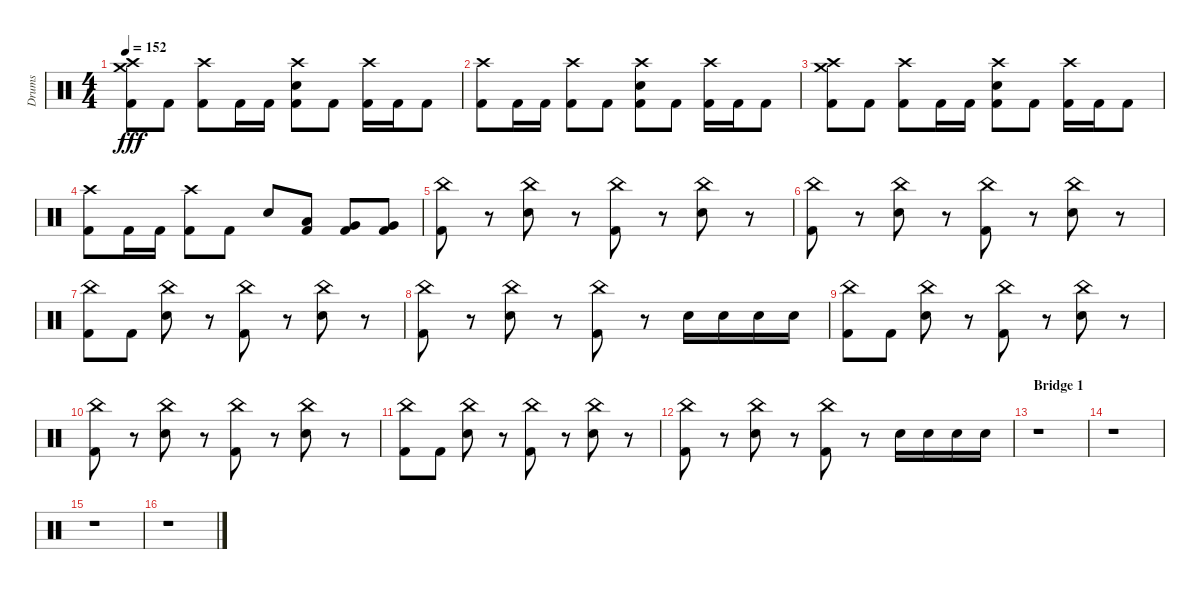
\track ("Drums" "Drums") {instrument percussion}
\staff {score}
\articulation defaults
\ts (4 4)
\tempo 152
\clef neutral
\ks c
("Crash high (hit)" "Crash medium (hit)" "Kick (hit) 2").8{dy fff} "Kick (hit) 2".8 ("Crash high (hit)" "Kick (hit) 2").8 "Kick (hit) 2".16 "Kick (hit) 2".16 ("Crash high (hit)" "Snare (hit) 2" "Kick (hit) 2").8 "Kick (hit) 2".8 ("Crash high (hit)" "Kick (hit) 2").16 "Kick (hit) 2".16 "Kick (hit) 2".8 |
("Crash high (hit)" "Kick (hit) 2").8 "Kick (hit) 2".16 "Kick (hit) 2".16 ("Crash high (hit)" "Kick (hit) 2").8 "Kick (hit) 2".8 ("Crash high (hit)" "Snare (hit) 2" "Kick (hit) 2").8 "Kick (hit) 2".8 ("Crash high (hit)" "Kick (hit) 2").16 "Kick (hit) 2".16 "Kick (hit) 2".8 |
("Crash medium (hit)" "Crash high (hit)" "Kick (hit) 2").8 "Kick (hit) 2".8 ("Crash high (hit)" "Kick (hit) 2").8 "Kick (hit) 2".16 "Kick (hit) 2".16 ("Crash high (hit)" "Snare (hit) 2" "Kick (hit) 2").8 "Kick (hit) 2".8 ("Crash high (hit)" "Kick (hit) 2").16 "Kick (hit) 2".16 "Kick (hit) 2".8 |
("Crash high (hit)" "Kick (hit) 2").8 "Kick (hit) 2".16 "Kick (hit) 2".16 ("Crash high (hit)" "Kick (hit) 2").8 "Kick (hit) 2".8 "Snare (hit) 2".8 ("Low Tom (hit)" "Kick (hit) 2").8 ("Very Low Tom (hit)" "Kick (hit) 2").8 ("Very Low Tom (hit)" "Kick (hit) 2").8 |
("China (hit)" "Kick (hit) 2").8 r.8 ("China (hit)" "Snare (hit) 2").8 r.8 ("China (hit)" "Kick (hit) 2").8 r.8 ("China (hit)" "Snare (hit) 2").8 r.8 |
("China (hit)" "Kick (hit) 2").8 r.8 ("China (hit)" "Snare (hit) 2").8 r.8 ("China (hit)" "Kick (hit) 2").8 r.8 ("China (hit)" "Snare (hit) 2").8 r.8 |
("China (hit)" "Kick (hit) 2").8 "Kick (hit) 2".8 ("China (hit)" "Snare (hit) 2").8 r.8 ("China (hit)" "Kick (hit) 2").8 r.8 ("China (hit)" "Snare (hit) 2").8 r.8 |
("China (hit)" "Kick (hit) 2").8 r.8 ("China (hit)" "Snare (hit) 2").8 r.8 ("China (hit)" "Kick (hit) 2").8 r.8 "Snare (hit) 2".16 "Snare (hit) 2".16 "Snare (hit) 2".16 "Snare (hit) 2".16 |
("China (hit)" "Kick (hit) 2").8 "Kick (hit) 2".8 ("China (hit)" "Snare (hit) 2").8 r.8 ("China (hit)" "Kick (hit) 2").8 r.8 ("China (hit)" "Snare (hit) 2").8 r.8 |
("China (hit)" "Kick (hit) 2").8 r.8 ("China (hit)" "Snare (hit) 2").8 r.8 ("China (hit)" "Kick (hit) 2").8 r.8 ("China (hit)" "Snare (hit) 2").8 r.8 |
("China (hit)" "Kick (hit) 2").8 "Kick (hit) 2".8 ("China (hit)" "Snare (hit) 2").8 r.8 ("China (hit)" "Kick (hit) 2").8 r.8 ("China (hit)" "Snare (hit) 2").8 r.8 |
\section ("" "")
("China (hit)" "Kick (hit) 2").8 r.8 ("China (hit)" "Snare (hit) 2").8 r.8 ("China (hit)" "Kick (hit) 2").8 r.8 "Snare (hit) 2".16 "Snare (hit) 2".16 "Snare (hit) 2".16 "Snare (hit) 2".16 |
\section ("" "Bridge 1")
r.1 |
r.1 |
r.1 |
r.1
